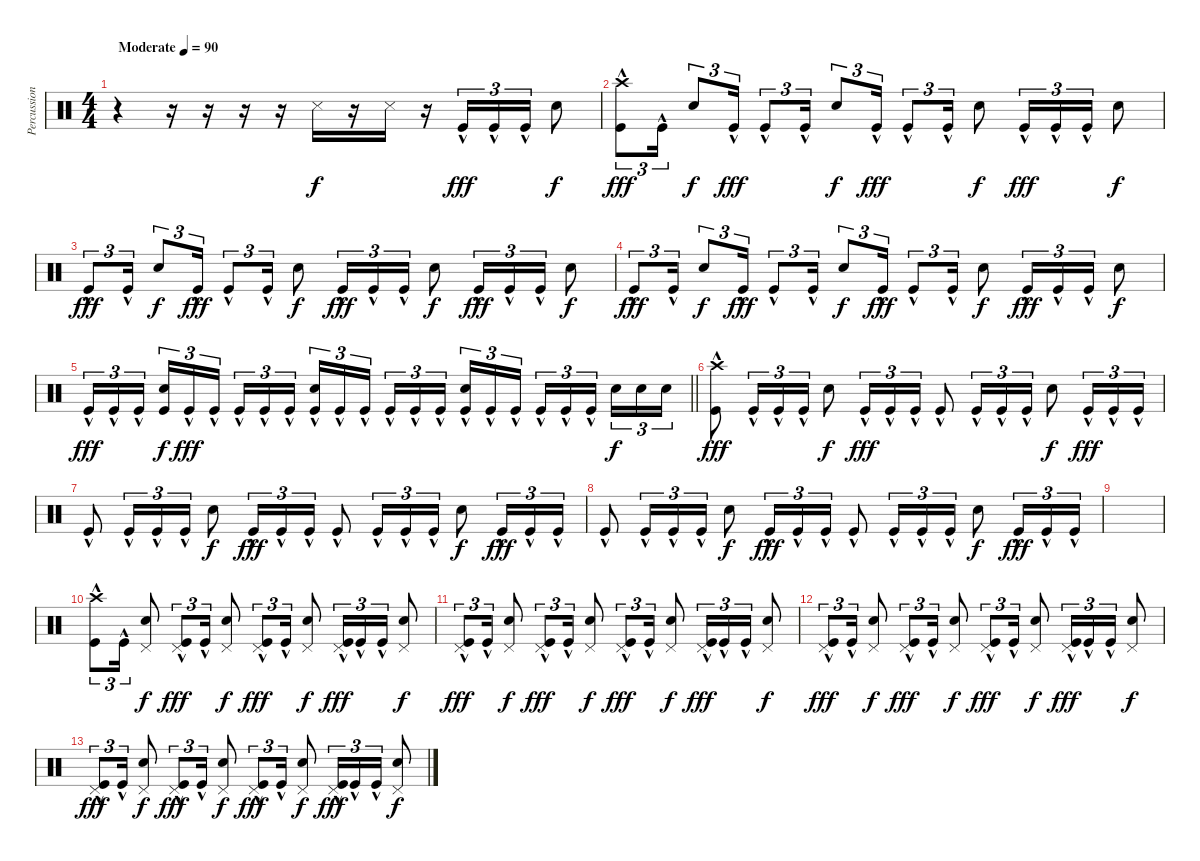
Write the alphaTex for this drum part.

\track ("Percussion" "Percussion") {instrument percussion}
\staff {score}
\articulation defaults
\ts (4 4)
\tempo (90 "Moderate")
\clef neutral
\ks c
r.4{dy f} r.16 r.16 r.16 r.16 "Snare (side stick) 3".16 r.16 "Snare (side stick) 3".16 r.16 "Kick (hit)"{hac}.16{tu (3 2) dy fff} "Kick (hit)"{hac}.16{tu (3 2)} "Kick (hit)"{hac}.16{tu (3 2)} "Electric Snare (hit)".8{dy f} |
("Crash high (hit)" "Kick (hit)"{hac}).8{tu (3 2) dy fff} "Kick (hit)"{hac}.16{tu (3 2)} "Electric Snare (hit)".8{tu (3 2) dy f} "Kick (hit)"{hac}.16{tu (3 2) dy fff} "Kick (hit)"{hac}.8{tu (3 2)} "Kick (hit)"{hac}.16{tu (3 2)} "Electric Snare (hit)".8{tu (3 2) dy f} "Kick (hit)"{hac}.16{tu (3 2) dy fff} "Kick (hit)"{hac}.8{tu (3 2)} "Kick (hit)"{hac}.16{tu (3 2)} "Electric Snare (hit)".8{dy f} "Kick (hit)"{hac}.16{tu (3 2) dy fff} "Kick (hit)"{hac}.16{tu (3 2)} "Kick (hit)"{hac}.16{tu (3 2)} "Electric Snare (hit)".8{dy f} |
"Kick (hit)"{hac}.8{tu (3 2) dy fff} "Kick (hit)"{hac}.16{tu (3 2)} "Electric Snare (hit)".8{tu (3 2) dy f} "Kick (hit)"{hac}.16{tu (3 2) dy fff} "Kick (hit)"{hac}.8{tu (3 2)} "Kick (hit)"{hac}.16{tu (3 2)} "Electric Snare (hit)".8{dy f} "Kick (hit)"{hac}.16{tu (3 2) dy fff} "Kick (hit)"{hac}.16{tu (3 2)} "Kick (hit)"{hac}.16{tu (3 2)} "Electric Snare (hit)".8{dy f} "Kick (hit)"{hac}.16{tu (3 2) dy fff} "Kick (hit)"{hac}.16{tu (3 2)} "Kick (hit)"{hac}.16{tu (3 2)} "Electric Snare (hit)".8{dy f} |
"Kick (hit)"{hac}.8{tu (3 2) dy fff} "Kick (hit)"{hac}.16{tu (3 2)} "Electric Snare (hit)".8{tu (3 2) dy f} "Kick (hit)"{hac}.16{tu (3 2) dy fff} "Kick (hit)"{hac}.8{tu (3 2)} "Kick (hit)"{hac}.16{tu (3 2)} "Electric Snare (hit)".8{tu (3 2) dy f} "Kick (hit)"{hac}.16{tu (3 2) dy fff} "Kick (hit)"{hac}.8{tu (3 2)} "Kick (hit)"{hac}.16{tu (3 2)} "Electric Snare (hit)".8{dy f} "Kick (hit)"{hac}.16{tu (3 2) dy fff} "Kick (hit)"{hac}.16{tu (3 2)} "Kick (hit)"{hac}.16{tu (3 2)} "Electric Snare (hit)".8{dy f} |
\barLineRight lightlight "Kick (hit)"{hac}.16{tu (3 2) dy fff} "Kick (hit)"{hac}.16{tu (3 2)} "Kick (hit)"{hac}.16{tu (3 2) beam splitsecondary}
("Electric Snare (hit)" "Kick (hit)").16{tu (3 2) dy f} "Kick (hit)"{hac}.16{tu (3 2) dy fff} "Kick (hit)"{hac}.16{tu (3 2)} "Kick (hit)"{hac}.16{tu (3 2)} "Kick (hit)"{hac}.16{tu (3 2)} "Kick (hit)"{hac}.16{tu (3 2) beam splitsecondary} ("Electric Snare (hit)" "Kick (hit)"{hac}).16{tu (3 2)} "Kick (hit)"{hac}.16{tu (3 2)} "Kick (hit)"{hac}.16{tu (3 2)} "Kick (hit)"{hac}.16{tu (3 2)} "Kick (hit)"{hac}.16{tu (3 2)} "Kick (hit)"{hac}.16{tu (3 2) beam splitsecondary} ("Electric Snare (hit)" "Kick (hit)"{hac}).16{tu (3 2)} "Kick (hit)"{hac}.16{tu (3 2)} "Kick (hit)"{hac}.16{tu (3 2)} "Kick (hit)"{hac}.16{tu (3 2)} "Kick (hit)"{hac}.16{tu (3 2)} "Kick (hit)"{hac}.16{tu (3 2) beam splitsecondary} "Electric Snare (hit)".16{tu (3 2) dy f} "Electric Snare (hit)".16{tu (3 2)} "Electric Snare (hit)".16{tu (3 2)} |
("Crash high (hit)" "Kick (hit)"{hac}).8{dy fff} "Kick (hit)"{hac}.16{tu (3 2)} "Kick (hit)"{hac}.16{tu (3 2)} "Kick (hit)"{hac}.16{tu (3 2)} "Electric Snare (hit)".8{dy f} "Kick (hit)"{hac}.16{tu (3 2) dy fff} "Kick (hit)"{hac}.16{tu (3 2)} "Kick (hit)"{hac}.16{tu (3 2)} "Kick (hit)"{hac}.8 "Kick (hit)"{hac}.16{tu (3 2)} "Kick (hit)"{hac}.16{tu (3 2)} "Kick (hit)"{hac}.16{tu (3 2)} "Electric Snare (hit)".8{dy f} "Kick (hit)"{hac}.16{tu (3 2) dy fff} "Kick (hit)"{hac}.16{tu (3 2)} "Kick (hit)"{hac}.16{tu (3 2)} |
"Kick (hit)"{hac}.8 "Kick (hit)"{hac}.16{tu (3 2)} "Kick (hit)"{hac}.16{tu (3 2)} "Kick (hit)"{hac}.16{tu (3 2)} "Electric Snare (hit)".8{dy f} "Kick (hit)"{hac}.16{tu (3 2) dy fff} "Kick (hit)"{hac}.16{tu (3 2)} "Kick (hit)"{hac}.16{tu (3 2)} "Kick (hit)"{hac}.8 "Kick (hit)"{hac}.16{tu (3 2)} "Kick (hit)"{hac}.16{tu (3 2)} "Kick (hit)"{hac}.16{tu (3 2)} "Electric Snare (hit)".8{dy f} "Kick (hit)"{hac}.16{tu (3 2) dy fff} "Kick (hit)"{hac}.16{tu (3 2)} "Kick (hit)"{hac}.16{tu (3 2)} |
"Kick (hit)"{hac}.8 "Kick (hit)"{hac}.16{tu (3 2)} "Kick (hit)"{hac}.16{tu (3 2)} "Kick (hit)"{hac}.16{tu (3 2)} "Electric Snare (hit)".8{dy f} "Kick (hit)"{hac}.16{tu (3 2) dy fff} "Kick (hit)"{hac}.16{tu (3 2)} "Kick (hit)"{hac}.16{tu (3 2)} "Kick (hit)"{hac}.8 "Kick (hit)"{hac}.16{tu (3 2)} "Kick (hit)"{hac}.16{tu (3 2)} "Kick (hit)"{hac}.16{tu (3 2)} "Electric Snare (hit)".8{dy f} "Kick (hit)"{hac}.16{tu (3 2) dy fff} "Kick (hit)"{hac}.16{tu (3 2)} "Kick (hit)"{hac}.16{tu (3 2)} |
|
("Crash high (hit)" "Kick (hit)"{hac}).8{tu (3 2)} "Kick (hit)"{hac}.16{tu (3 2)} ("Pedal Hi-Hat (hit)" "Electric Snare (hit)").8{dy f} ("Pedal Hi-Hat (hit)" "Kick (hit)"{hac}).8{tu (3 2) dy fff} "Kick (hit)"{hac}.16{tu (3 2)} ("Pedal Hi-Hat (hit)" "Electric Snare (hit)").8{dy f} ("Pedal Hi-Hat (hit)" "Kick (hit)"{hac}).8{tu (3 2) dy fff} "Kick (hit)"{hac}.16{tu (3 2)} ("Pedal Hi-Hat (hit)" "Electric Snare (hit)").8{dy f} ("Pedal Hi-Hat (hit)" "Kick (hit)"{hac}).16{tu (3 2) dy fff} "Kick (hit)"{hac}.16{tu (3 2)} "Kick (hit)"{hac}.16{tu (3 2)} ("Pedal Hi-Hat (hit)" "Electric Snare (hit)").8{dy f} |
("Pedal Hi-Hat (hit)" "Kick (hit)"{hac}).8{tu (3 2) dy fff} "Kick (hit)"{hac}.16{tu (3 2)} ("Pedal Hi-Hat (hit)" "Electric Snare (hit)").8{dy f} ("Pedal Hi-Hat (hit)" "Kick (hit)"{hac}).8{tu (3 2) dy fff} "Kick (hit)"{hac}.16{tu (3 2)} ("Pedal Hi-Hat (hit)" "Electric Snare (hit)").8{dy f} ("Pedal Hi-Hat (hit)" "Kick (hit)"{hac}).8{tu (3 2) dy fff} "Kick (hit)"{hac}.16{tu (3 2)} ("Pedal Hi-Hat (hit)" "Electric Snare (hit)").8{dy f} ("Pedal Hi-Hat (hit)" "Kick (hit)"{hac}).16{tu (3 2) dy fff} "Kick (hit)"{hac}.16{tu (3 2)} "Kick (hit)"{hac}.16{tu (3 2)} ("Pedal Hi-Hat (hit)" "Electric Snare (hit)").8{dy f} |
("Pedal Hi-Hat (hit)" "Kick (hit)"{hac}).8{tu (3 2) dy fff} "Kick (hit)"{hac}.16{tu (3 2)} ("Pedal Hi-Hat (hit)" "Electric Snare (hit)").8{dy f} ("Pedal Hi-Hat (hit)" "Kick (hit)"{hac}).8{tu (3 2) dy fff} "Kick (hit)"{hac}.16{tu (3 2)} ("Pedal Hi-Hat (hit)" "Electric Snare (hit)").8{dy f} ("Pedal Hi-Hat (hit)" "Kick (hit)"{hac}).8{tu (3 2) dy fff} "Kick (hit)"{hac}.16{tu (3 2)} ("Pedal Hi-Hat (hit)" "Electric Snare (hit)").8{dy f} ("Pedal Hi-Hat (hit)" "Kick (hit)"{hac}).16{tu (3 2) dy fff} "Kick (hit)"{hac}.16{tu (3 2)} "Kick (hit)"{hac}.16{tu (3 2)} ("Pedal Hi-Hat (hit)" "Electric Snare (hit)").8{dy f} |
("Pedal Hi-Hat (hit)" "Kick (hit)"{hac}).8{tu (3 2) dy fff} "Kick (hit)"{hac}.16{tu (3 2)} ("Pedal Hi-Hat (hit)" "Electric Snare (hit)").8{dy f} ("Pedal Hi-Hat (hit)" "Kick (hit)"{hac}).8{tu (3 2) dy fff} "Kick (hit)"{hac}.16{tu (3 2)} ("Pedal Hi-Hat (hit)" "Electric Snare (hit)").8{dy f} ("Pedal Hi-Hat (hit)" "Kick (hit)"{hac}).8{tu (3 2) dy fff} "Kick (hit)"{hac}.16{tu (3 2)} ("Pedal Hi-Hat (hit)" "Electric Snare (hit)").8{dy f} ("Pedal Hi-Hat (hit)" "Kick (hit)"{hac}).16{tu (3 2) dy fff} "Kick (hit)"{hac}.16{tu (3 2)} "Kick (hit)"{hac}.16{tu (3 2)} ("Pedal Hi-Hat (hit)" "Electric Snare (hit)").8{dy f}
